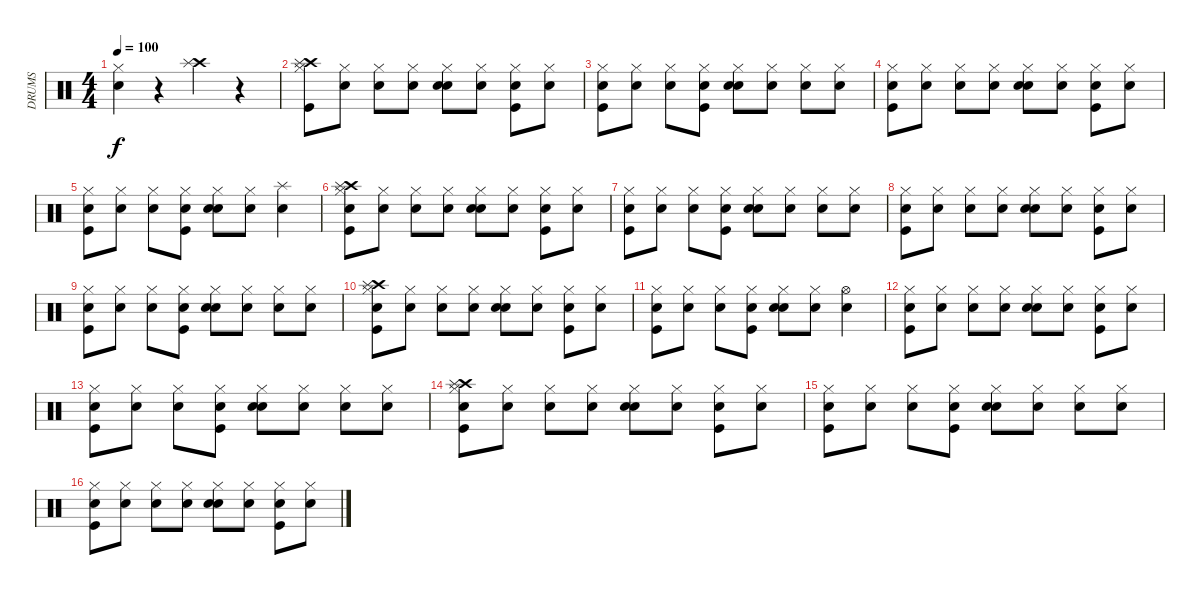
\track ("DRUMS" "DRUMS") {instrument percussion}
\staff {score}
\articulation defaults
\ts (4 4)
\tempo 100
\clef neutral
\ks c
("Snare (hit) 2" "Hi-Hat (closed)").4{dy f} r.4 ("Crash high (hit)" "Splash (hit)").4 r.4 |
("Kick (hit)" "Crash high (hit)" "Splash (hit)" "Hi-Hat (closed)").8 ("Snare (hit)" "Hi-Hat (closed)").8 ("Snare (hit)" "Hi-Hat (closed)").8 ("Snare (hit)" "Hi-Hat (closed)").8 ("Snare (hit)" "Snare (hit) 2" "Hi-Hat (closed)").8 ("Snare (hit)" "Hi-Hat (closed)").8 ("Snare (hit)" "Kick (hit)" "Hi-Hat (closed)").8 ("Snare (hit)" "Hi-Hat (closed)").8 |
("Snare (hit)" "Kick (hit)" "Hi-Hat (closed)").8 ("Snare (hit)" "Hi-Hat (closed)").8 ("Snare (hit)" "Hi-Hat (closed)").8 ("Snare (hit)" "Kick (hit)" "Hi-Hat (closed)").8 ("Snare (hit)" "Snare (hit) 2" "Hi-Hat (closed)").8 ("Snare (hit)" "Hi-Hat (closed)").8 ("Snare (hit)" "Hi-Hat (closed)").8 ("Snare (hit)" "Hi-Hat (closed)").8 |
("Snare (hit)" "Kick (hit)" "Hi-Hat (closed)").8 ("Snare (hit)" "Hi-Hat (closed)").8 ("Snare (hit)" "Hi-Hat (closed)").8 ("Snare (hit)" "Hi-Hat (closed)").8 ("Snare (hit)" "Snare (hit) 2" "Hi-Hat (closed)").8 ("Snare (hit)" "Hi-Hat (closed)").8 ("Snare (hit)" "Kick (hit)" "Hi-Hat (closed)").8 ("Snare (hit)" "Hi-Hat (closed)").8 |
("Snare (hit)" "Kick (hit)" "Hi-Hat (closed)").8 ("Snare (hit)" "Hi-Hat (closed)").8 ("Snare (hit)" "Hi-Hat (closed)").8 ("Snare (hit)" "Kick (hit)" "Hi-Hat (closed)").8 ("Snare (hit)" "Snare (hit) 2" "Hi-Hat (closed)").8 ("Snare (hit)" "Hi-Hat (closed)").8 ("Snare (hit)" "Splash (hit)").4 |
("Snare (hit)" "Kick (hit)" "Crash high (hit)" "Splash (hit)" "Hi-Hat (closed)").8 ("Snare (hit)" "Hi-Hat (closed)").8 ("Snare (hit)" "Hi-Hat (closed)").8 ("Snare (hit)" "Hi-Hat (closed)").8 ("Snare (hit)" "Snare (hit) 2" "Hi-Hat (closed)").8 ("Snare (hit)" "Hi-Hat (closed)").8 ("Snare (hit)" "Kick (hit)" "Hi-Hat (closed)").8 ("Snare (hit)" "Hi-Hat (closed)").8 |
("Snare (hit)" "Kick (hit)" "Hi-Hat (closed)").8 ("Snare (hit)" "Hi-Hat (closed)").8 ("Snare (hit)" "Hi-Hat (closed)").8 ("Snare (hit)" "Kick (hit)" "Hi-Hat (closed)").8 ("Snare (hit)" "Snare (hit) 2" "Hi-Hat (closed)").8 ("Snare (hit)" "Hi-Hat (closed)").8 ("Snare (hit)" "Hi-Hat (closed)").8 ("Snare (hit)" "Hi-Hat (closed)").8 |
("Snare (hit)" "Kick (hit)" "Hi-Hat (closed)").8 ("Snare (hit)" "Hi-Hat (closed)").8 ("Snare (hit)" "Hi-Hat (closed)").8 ("Snare (hit)" "Hi-Hat (closed)").8 ("Snare (hit)" "Snare (hit) 2" "Hi-Hat (closed)").8 ("Snare (hit)" "Hi-Hat (closed)").8 ("Snare (hit)" "Kick (hit)" "Hi-Hat (closed)").8 ("Snare (hit)" "Hi-Hat (closed)").8 |
("Snare (hit)" "Kick (hit)" "Hi-Hat (closed)").8 ("Snare (hit)" "Hi-Hat (closed)").8 ("Snare (hit)" "Hi-Hat (closed)").8 ("Snare (hit)" "Kick (hit)" "Hi-Hat (closed)").8 ("Snare (hit)" "Snare (hit) 2" "Hi-Hat (closed)").8 ("Snare (hit)" "Hi-Hat (closed)").8 ("Snare (hit)" "Hi-Hat (closed)").8 ("Snare (hit)" "Hi-Hat (closed)").8 |
("Snare (hit)" "Kick (hit)" "Crash high (hit)" "Splash (hit)" "Hi-Hat (closed)").8 ("Snare (hit)" "Hi-Hat (closed)").8 ("Snare (hit)" "Hi-Hat (closed)").8 ("Snare (hit)" "Hi-Hat (closed)").8 ("Snare (hit)" "Snare (hit) 2" "Hi-Hat (closed)").8 ("Snare (hit)" "Hi-Hat (closed)").8 ("Snare (hit)" "Kick (hit)" "Hi-Hat (closed)").8 ("Snare (hit)" "Hi-Hat (closed)").8 |
("Snare (hit)" "Kick (hit)" "Hi-Hat (closed)").8 ("Snare (hit)" "Hi-Hat (closed)").8 ("Snare (hit)" "Hi-Hat (closed)").8 ("Snare (hit)" "Kick (hit)" "Hi-Hat (closed)").8 ("Snare (hit)" "Snare (hit) 2" "Hi-Hat (closed)").8 ("Snare (hit)" "Hi-Hat (closed)").8 ("Snare (hit)" "Hi-Hat (open)").4 |
("Snare (hit)" "Kick (hit)" "Hi-Hat (closed)").8 ("Snare (hit)" "Hi-Hat (closed)").8 ("Snare (hit)" "Hi-Hat (closed)").8 ("Snare (hit)" "Hi-Hat (closed)").8 ("Snare (hit)" "Snare (hit) 2" "Hi-Hat (closed)").8{txt ""} ("Snare (hit)" "Hi-Hat (closed)").8 ("Snare (hit)" "Kick (hit)" "Hi-Hat (closed)").8 ("Snare (hit)" "Hi-Hat (closed)").8 |
("Snare (hit)" "Kick (hit)" "Hi-Hat (closed)").8 ("Snare (hit)" "Hi-Hat (closed)").8 ("Snare (hit)" "Hi-Hat (closed)").8 ("Snare (hit)" "Kick (hit)" "Hi-Hat (closed)").8 ("Snare (hit)" "Snare (hit) 2" "Hi-Hat (closed)").8 ("Snare (hit)" "Hi-Hat (closed)").8 ("Snare (hit)" "Hi-Hat (closed)").8 ("Snare (hit)" "Hi-Hat (closed)").8 |
("Snare (hit)" "Kick (hit)" "Crash high (hit)" "Splash (hit)" "Hi-Hat (closed)").8 ("Snare (hit)" "Hi-Hat (closed)").8 ("Snare (hit)" "Hi-Hat (closed)").8 ("Snare (hit)" "Hi-Hat (closed)").8 ("Snare (hit)" "Snare (hit) 2" "Hi-Hat (closed)").8 ("Snare (hit)" "Hi-Hat (closed)").8 ("Snare (hit)" "Kick (hit)" "Hi-Hat (closed)").8 ("Snare (hit)" "Hi-Hat (closed)").8 |
("Snare (hit)" "Kick (hit)" "Hi-Hat (closed)").8 ("Snare (hit)" "Hi-Hat (closed)").8 ("Snare (hit)" "Hi-Hat (closed)").8 ("Snare (hit)" "Kick (hit)" "Hi-Hat (closed)").8 ("Snare (hit)" "Snare (hit) 2" "Hi-Hat (closed)").8 ("Snare (hit)" "Hi-Hat (closed)").8 ("Snare (hit)" "Hi-Hat (closed)").8 ("Snare (hit)" "Hi-Hat (closed)").8 |
("Snare (hit)" "Kick (hit)" "Hi-Hat (closed)").8 ("Snare (hit)" "Hi-Hat (closed)").8 ("Snare (hit)" "Hi-Hat (closed)").8 ("Snare (hit)" "Hi-Hat (closed)").8 ("Snare (hit)" "Snare (hit) 2" "Hi-Hat (closed)").8 ("Snare (hit)" "Hi-Hat (closed)").8 ("Snare (hit)" "Kick (hit)" "Hi-Hat (closed)").8 ("Snare (hit)" "Hi-Hat (closed)").8
